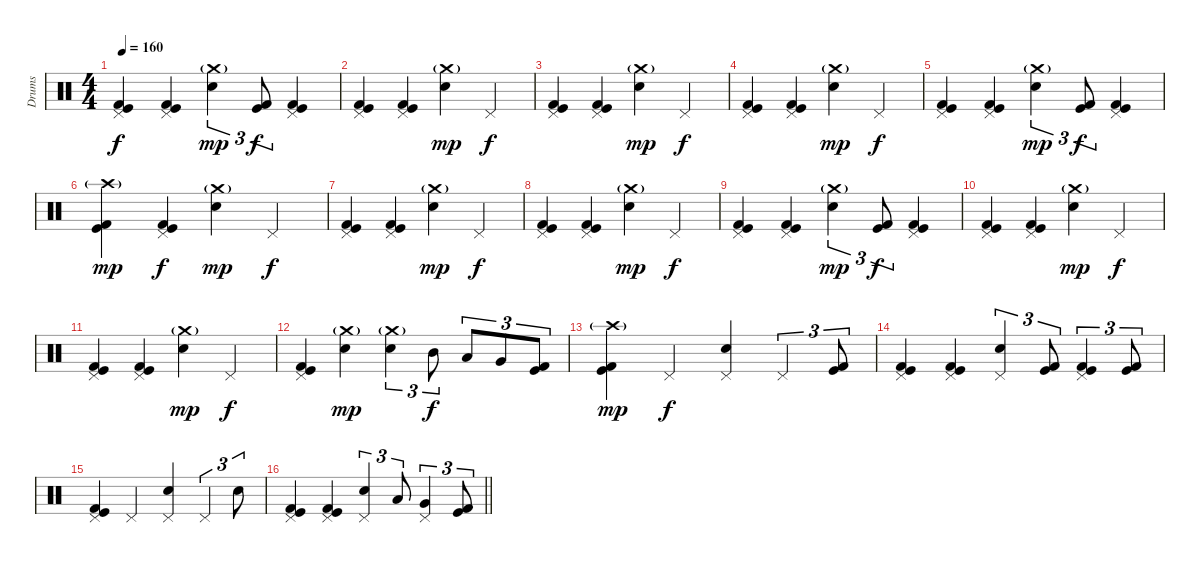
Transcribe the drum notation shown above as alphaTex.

\track ("Drums" "Drums") {instrument percussion}
\staff {score}
\articulation defaults
\ts (4 4)
\tempo 160
\clef neutral
\ks c
("Pedal Hi-Hat (hit)" "Kick (hit)" "Kick (hit) 2").4{dy f} ("Pedal Hi-Hat (hit)" "Kick (hit)" "Kick (hit) 2").4 ("Crash medium (hit)"{g} "Electric Snare (hit)").4{tu (3 2) dy mp} ("Kick (hit)" "Kick (hit) 2").8{tu (3 2) dy f} ("Pedal Hi-Hat (hit)" "Kick (hit)" "Kick (hit) 2").4 |
("Pedal Hi-Hat (hit)" "Kick (hit)" "Kick (hit) 2").4 ("Pedal Hi-Hat (hit)" "Kick (hit)" "Kick (hit) 2").4 ("Crash medium (hit)"{g} "Electric Snare (hit)").4{dy mp} "Pedal Hi-Hat (hit)".4{dy f} |
("Pedal Hi-Hat (hit)" "Kick (hit)" "Kick (hit) 2").4 ("Pedal Hi-Hat (hit)" "Kick (hit)" "Kick (hit) 2").4 ("Crash medium (hit)"{g} "Electric Snare (hit)").4{dy mp} "Pedal Hi-Hat (hit)".4{dy f} |
("Pedal Hi-Hat (hit)" "Kick (hit)" "Kick (hit) 2").4 ("Pedal Hi-Hat (hit)" "Kick (hit)" "Kick (hit) 2").4 ("Crash medium (hit)"{g} "Electric Snare (hit)").4{dy mp} "Pedal Hi-Hat (hit)".4{dy f} |
("Pedal Hi-Hat (hit)" "Kick (hit)" "Kick (hit) 2").4 ("Pedal Hi-Hat (hit)" "Kick (hit)" "Kick (hit) 2").4 ("Crash medium (hit)"{g} "Electric Snare (hit)").4{tu (3 2) dy mp} ("Kick (hit)" "Kick (hit) 2").8{tu (3 2) dy f} ("Pedal Hi-Hat (hit)" "Kick (hit)" "Kick (hit) 2").4 |
("Crash high (hit)"{g} "Kick (hit)" "Kick (hit) 2").4{dy mp} ("Pedal Hi-Hat (hit)" "Kick (hit)" "Kick (hit) 2").4{dy f} ("Crash medium (hit)"{g} "Electric Snare (hit)").4{dy mp} "Pedal Hi-Hat (hit)".4{dy f} |
("Pedal Hi-Hat (hit)" "Kick (hit)" "Kick (hit) 2").4 ("Pedal Hi-Hat (hit)" "Kick (hit)" "Kick (hit) 2").4 ("Crash medium (hit)"{g} "Electric Snare (hit)").4{dy mp} "Pedal Hi-Hat (hit)".4{dy f} |
("Pedal Hi-Hat (hit)" "Kick (hit)" "Kick (hit) 2").4 ("Pedal Hi-Hat (hit)" "Kick (hit)" "Kick (hit) 2").4 ("Crash medium (hit)"{g} "Electric Snare (hit)").4{dy mp} "Pedal Hi-Hat (hit)".4{dy f} |
("Pedal Hi-Hat (hit)" "Kick (hit)" "Kick (hit) 2").4 ("Pedal Hi-Hat (hit)" "Kick (hit)" "Kick (hit) 2").4 ("Crash medium (hit)"{g} "Electric Snare (hit)").4{tu (3 2) dy mp} ("Kick (hit)" "Kick (hit) 2").8{tu (3 2) dy f} ("Pedal Hi-Hat (hit)" "Kick (hit)" "Kick (hit) 2").4 |
("Pedal Hi-Hat (hit)" "Kick (hit)" "Kick (hit) 2").4 ("Pedal Hi-Hat (hit)" "Kick (hit)" "Kick (hit) 2").4 ("Crash medium (hit)"{g} "Electric Snare (hit)").4{dy mp} "Pedal Hi-Hat (hit)".4{dy f} |
("Pedal Hi-Hat (hit)" "Kick (hit)" "Kick (hit) 2").4 ("Pedal Hi-Hat (hit)" "Kick (hit)" "Kick (hit) 2").4 ("Crash medium (hit)"{g} "Electric Snare (hit)").4{dy mp} "Pedal Hi-Hat (hit)".4{dy f} |
("Pedal Hi-Hat (hit)" "Kick (hit)" "Kick (hit) 2").4 ("Crash medium (hit)"{g} "Electric Snare (hit)").4{dy mp} ("Crash medium (hit)"{g} "Electric Snare (hit)").4{tu (3 2)} "Mid Tom (hit)".8{tu (3 2) dy f} "Low Tom (hit)".8{tu (3 2)} "Very Low Tom (hit)".8{tu (3 2)} ("Kick (hit)" "Kick (hit) 2").8{tu (3 2)} |
("Crash high (hit)"{g} "Kick (hit)" "Kick (hit) 2").4{dy mp} "Pedal Hi-Hat (hit)".4{dy f} ("Pedal Hi-Hat (hit)" "Electric Snare (hit)").4 "Pedal Hi-Hat (hit)".4{tu (3 2)} ("Kick (hit)" "Kick (hit) 2").8{tu (3 2)} |
("Pedal Hi-Hat (hit)" "Kick (hit)" "Kick (hit) 2").4 ("Pedal Hi-Hat (hit)" "Kick (hit)" "Kick (hit) 2").4 ("Pedal Hi-Hat (hit)" "Electric Snare (hit)").4{tu (3 2)} ("Kick (hit)" "Kick (hit) 2").8{tu (3 2)} ("Pedal Hi-Hat (hit)" "Kick (hit)" "Kick (hit) 2").4{tu (3 2)} ("Kick (hit)" "Kick (hit) 2").8{tu (3 2)} |
("Pedal Hi-Hat (hit)" "Kick (hit)" "Kick (hit) 2").4 "Pedal Hi-Hat (hit)".4 ("Pedal Hi-Hat (hit)" "Electric Snare (hit)").4 "Pedal Hi-Hat (hit)".4{tu (3 2)} "Electric Snare (hit)".8{tu (3 2)} |
\barLineRight lightlight
("Pedal Hi-Hat (hit)" "Kick (hit)" "Kick (hit) 2").4 ("Pedal Hi-Hat (hit)" "Kick (hit)" "Kick (hit) 2").4 ("Pedal Hi-Hat (hit)" "Electric Snare (hit)").4{tu (3 2)} "Low Tom (hit)".8{tu (3 2)} ("Pedal Hi-Hat (hit)" "Very Low Tom (hit)").4{tu (3 2)} ("Kick (hit)" "Kick (hit) 2").8{tu (3 2)}
